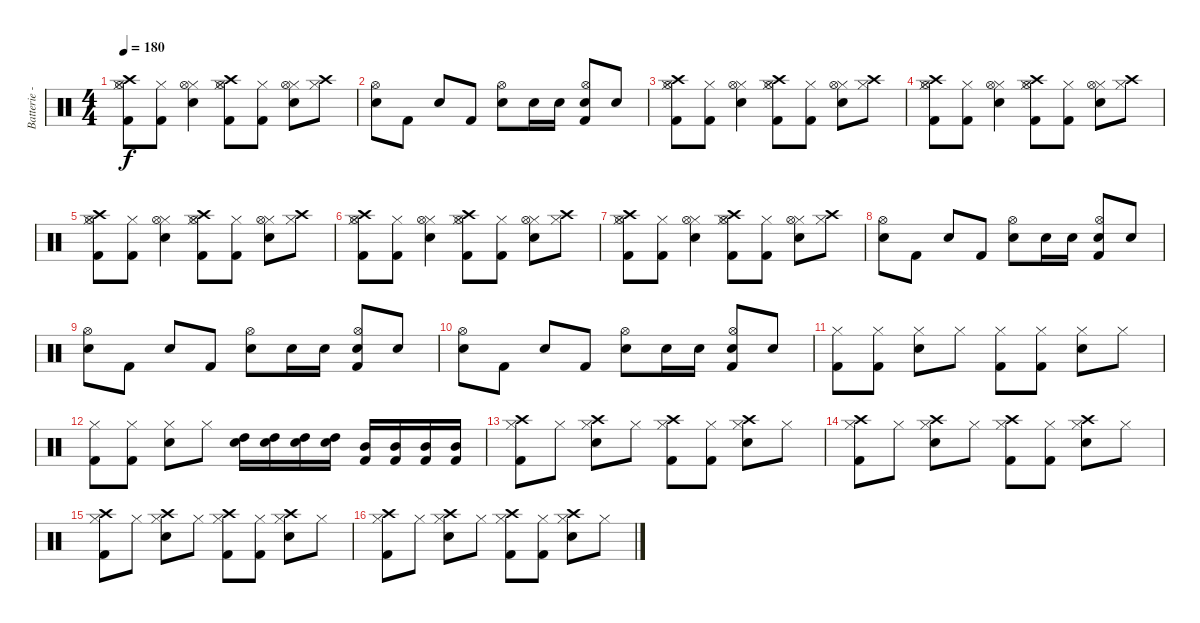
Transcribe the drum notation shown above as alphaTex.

\track ("Batterie - Stevo" "Batterie -") {instrument percussion}
\staff {score}
\articulation defaults
\ts (4 4)
\tempo 180
\clef neutral
\ks c
("Hi-Hat (closed)" "Kick (hit) 2" "Hi-Hat (open)" "Crash high (hit)").8{dy f} ("Hi-Hat (closed)" "Kick (hit) 2").8 ("Hi-Hat (closed)" "Electric Snare (hit)" "Hi-Hat (open)").4 ("Hi-Hat (closed)" "Kick (hit) 2" "Hi-Hat (open)" "Crash high (hit)").8 ("Hi-Hat (closed)" "Kick (hit) 2").8 ("Hi-Hat (closed)" "Electric Snare (hit)" "Hi-Hat (open)").8 ("Hi-Hat (closed)" "Crash high (hit)").8 |
("Electric Snare (hit)" "Hi-Hat (open)").8 "Kick (hit) 2".8 "Electric Snare (hit)".8 "Kick (hit) 2".8 ("Electric Snare (hit)" "Hi-Hat (open)").8 "Electric Snare (hit)".16 "Electric Snare (hit)".16 ("Electric Snare (hit)" "Kick (hit) 2" "Hi-Hat (open)").8 "Electric Snare (hit)".8 |
("Hi-Hat (closed)" "Kick (hit) 2" "Hi-Hat (open)" "Crash high (hit)").8 ("Hi-Hat (closed)" "Kick (hit) 2").8 ("Hi-Hat (closed)" "Electric Snare (hit)" "Hi-Hat (open)").4 ("Hi-Hat (closed)" "Kick (hit) 2" "Hi-Hat (open)" "Crash high (hit)").8 ("Hi-Hat (closed)" "Kick (hit) 2").8 ("Hi-Hat (closed)" "Electric Snare (hit)" "Hi-Hat (open)").8 ("Hi-Hat (closed)" "Crash high (hit)").8 |
("Hi-Hat (closed)" "Kick (hit) 2" "Hi-Hat (open)" "Crash high (hit)").8 ("Hi-Hat (closed)" "Kick (hit) 2").8 ("Hi-Hat (closed)" "Electric Snare (hit)" "Hi-Hat (open)").4 ("Hi-Hat (closed)" "Kick (hit) 2" "Hi-Hat (open)" "Crash high (hit)").8 ("Hi-Hat (closed)" "Kick (hit) 2").8 ("Hi-Hat (closed)" "Electric Snare (hit)" "Hi-Hat (open)").8 ("Hi-Hat (closed)" "Crash high (hit)").8 |
("Hi-Hat (closed)" "Kick (hit) 2" "Hi-Hat (open)" "Crash high (hit)").8 ("Hi-Hat (closed)" "Kick (hit) 2").8 ("Hi-Hat (closed)" "Electric Snare (hit)" "Hi-Hat (open)").4 ("Hi-Hat (closed)" "Kick (hit) 2" "Hi-Hat (open)" "Crash high (hit)").8 ("Hi-Hat (closed)" "Kick (hit) 2").8 ("Hi-Hat (closed)" "Electric Snare (hit)" "Hi-Hat (open)").8 ("Hi-Hat (closed)" "Crash high (hit)").8 |
("Hi-Hat (closed)" "Kick (hit) 2" "Hi-Hat (open)" "Crash high (hit)").8 ("Hi-Hat (closed)" "Kick (hit) 2").8 ("Hi-Hat (closed)" "Electric Snare (hit)" "Hi-Hat (open)").4 ("Hi-Hat (closed)" "Kick (hit) 2" "Hi-Hat (open)" "Crash high (hit)").8 ("Hi-Hat (closed)" "Kick (hit) 2").8 ("Hi-Hat (closed)" "Electric Snare (hit)" "Hi-Hat (open)").8 ("Hi-Hat (closed)" "Crash high (hit)").8 |
("Hi-Hat (closed)" "Kick (hit) 2" "Hi-Hat (open)" "Crash high (hit)").8 ("Hi-Hat (closed)" "Kick (hit) 2").8 ("Hi-Hat (closed)" "Electric Snare (hit)" "Hi-Hat (open)").4 ("Hi-Hat (closed)" "Kick (hit) 2" "Hi-Hat (open)" "Crash high (hit)").8 ("Hi-Hat (closed)" "Kick (hit) 2").8 ("Hi-Hat (closed)" "Electric Snare (hit)" "Hi-Hat (open)").8 ("Hi-Hat (closed)" "Crash high (hit)").8 |
("Electric Snare (hit)" "Hi-Hat (open)").8 "Kick (hit) 2".8 "Electric Snare (hit)".8 "Kick (hit) 2".8 ("Electric Snare (hit)" "Hi-Hat (open)").8 "Electric Snare (hit)".16 "Electric Snare (hit)".16 ("Electric Snare (hit)" "Kick (hit) 2" "Hi-Hat (open)").8 "Electric Snare (hit)".8 |
("Electric Snare (hit)" "Hi-Hat (open)").8 "Kick (hit) 2".8 "Electric Snare (hit)".8 "Kick (hit) 2".8 ("Electric Snare (hit)" "Hi-Hat (open)").8 "Electric Snare (hit)".16 "Electric Snare (hit)".16 ("Electric Snare (hit)" "Kick (hit) 2" "Hi-Hat (open)").8 "Electric Snare (hit)".8 |
("Electric Snare (hit)" "Hi-Hat (open)").8 "Kick (hit) 2".8 "Electric Snare (hit)".8 "Kick (hit) 2".8 ("Electric Snare (hit)" "Hi-Hat (open)").8 "Electric Snare (hit)".16 "Electric Snare (hit)".16 ("Electric Snare (hit)" "Kick (hit) 2" "Hi-Hat (open)").8 "Electric Snare (hit)".8 |
("Hi-Hat (closed)" "Kick (hit) 2").8 ("Hi-Hat (closed)" "Kick (hit) 2").8 ("Hi-Hat (closed)" "Electric Snare (hit)").8 "Hi-Hat (closed)".8 ("Hi-Hat (closed)" "Kick (hit) 2").8 ("Hi-Hat (closed)" "Kick (hit) 2").8 ("Hi-Hat (closed)" "Electric Snare (hit)").8 "Hi-Hat (closed)".8 |
("Hi-Hat (closed)" "Kick (hit) 2").8 ("Hi-Hat (closed)" "Kick (hit) 2").8 ("Hi-Hat (closed)" "Electric Snare (hit)").8 "Hi-Hat (closed)".8 ("Electric Snare (hit)" "High Tom (hit)").16 ("Electric Snare (hit)" "High Tom (hit)").16 ("Electric Snare (hit)" "High Tom (hit)").16 ("Electric Snare (hit)" "High Tom (hit)").16 ("Mid Tom (hit)" "Kick (hit) 2").16 ("Mid Tom (hit)" "Kick (hit) 2").16 ("Mid Tom (hit)" "Kick (hit) 2").16 ("Mid Tom (hit)" "Kick (hit) 2").16 |
("Hi-Hat (closed)" "Kick (hit) 2" "Crash high (hit)").8 "Hi-Hat (closed)".8 ("Hi-Hat (closed)" "Electric Snare (hit)" "Crash high (hit)").8 "Hi-Hat (closed)".8 ("Hi-Hat (closed)" "Kick (hit) 2" "Crash high (hit)").8 ("Hi-Hat (closed)" "Kick (hit) 2").8 ("Hi-Hat (closed)" "Electric Snare (hit)" "Crash high (hit)").8 "Hi-Hat (closed)".8 |
("Hi-Hat (closed)" "Kick (hit) 2" "Crash high (hit)").8 "Hi-Hat (closed)".8 ("Hi-Hat (closed)" "Electric Snare (hit)" "Crash high (hit)").8 "Hi-Hat (closed)".8 ("Hi-Hat (closed)" "Kick (hit) 2" "Crash high (hit)").8 ("Hi-Hat (closed)" "Kick (hit) 2").8 ("Hi-Hat (closed)" "Electric Snare (hit)" "Crash high (hit)").8 "Hi-Hat (closed)".8 |
("Hi-Hat (closed)" "Kick (hit) 2" "Crash high (hit)").8 "Hi-Hat (closed)".8 ("Hi-Hat (closed)" "Electric Snare (hit)" "Crash high (hit)").8 "Hi-Hat (closed)".8 ("Hi-Hat (closed)" "Kick (hit) 2" "Crash high (hit)").8 ("Hi-Hat (closed)" "Kick (hit) 2").8 ("Hi-Hat (closed)" "Electric Snare (hit)" "Crash high (hit)").8 "Hi-Hat (closed)".8 |
("Hi-Hat (closed)" "Kick (hit) 2" "Crash high (hit)").8 "Hi-Hat (closed)".8 ("Hi-Hat (closed)" "Electric Snare (hit)" "Crash high (hit)").8 "Hi-Hat (closed)".8 ("Hi-Hat (closed)" "Kick (hit) 2" "Crash high (hit)").8 ("Hi-Hat (closed)" "Kick (hit) 2").8 ("Hi-Hat (closed)" "Electric Snare (hit)" "Crash high (hit)").8 "Hi-Hat (closed)".8
